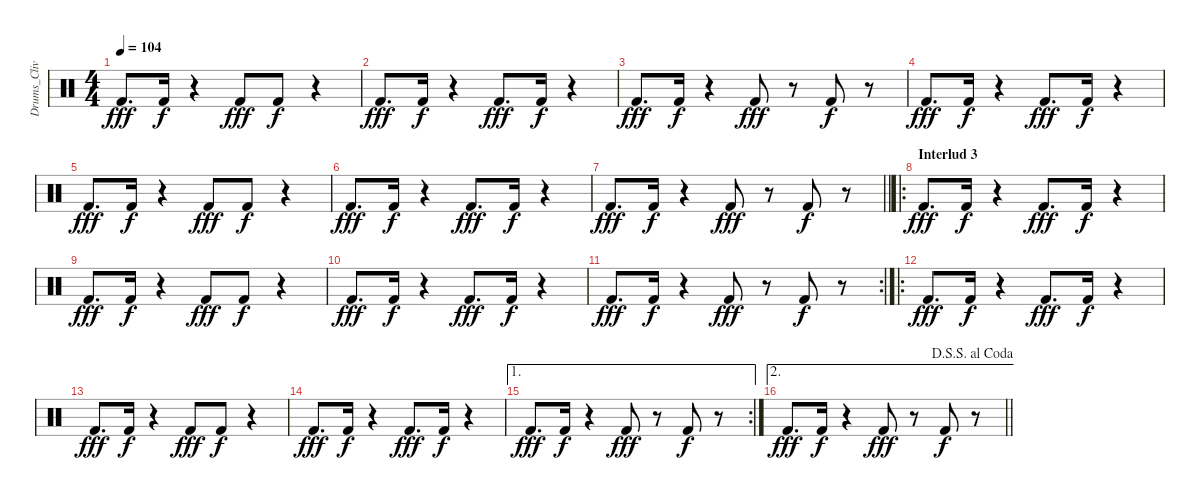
\track ("Drums_CliveBurr" "Drums_Cliv") {instrument percussion}
\staff {score}
\articulation defaults
\ts (4 4)
\tempo 104
\clef neutral
\ks c "Kick (hit) 2".8{d dy fff} "Kick (hit) 2".16{dy f}
r.4 "Kick (hit) 2".8{dy fff} "Kick (hit) 2".8{dy f} r.4 |
"Kick (hit) 2".8{d dy fff} "Kick (hit) 2".16{dy f} r.4 "Kick (hit) 2".8{d dy fff} "Kick (hit) 2".16{dy f} r.4 |
"Kick (hit) 2".8{d dy fff} "Kick (hit) 2".16{dy f} r.4 "Kick (hit) 2".8{dy fff} r.8 "Kick (hit) 2".8{dy f} r.8 |
"Kick (hit) 2".8{d dy fff} "Kick (hit) 2".16{dy f} r.4 "Kick (hit) 2".8{d dy fff} "Kick (hit) 2".16{dy f} r.4 |
"Kick (hit) 2".8{d dy fff} "Kick (hit) 2".16{dy f} r.4 "Kick (hit) 2".8{dy fff} "Kick (hit) 2".8{dy f} r.4 |
"Kick (hit) 2".8{d dy fff} "Kick (hit) 2".16{dy f} r.4 "Kick (hit) 2".8{d dy fff} "Kick (hit) 2".16{dy f} r.4 |
\barLineRight lightlight "Kick (hit) 2".8{d dy fff} "Kick (hit) 2".16{dy f}
r.4 "Kick (hit) 2".8{dy fff} r.8 "Kick (hit) 2".8{dy f} r.8 |
\ro
\section ("" "Interlud 3")
"Kick (hit) 2".8{d dy fff} "Kick (hit) 2".16{dy f} r.4 "Kick (hit) 2".8{d dy fff} "Kick (hit) 2".16{dy f} r.4 |
"Kick (hit) 2".8{d dy fff} "Kick (hit) 2".16{dy f} r.4 "Kick (hit) 2".8{dy fff} "Kick (hit) 2".8{dy f} r.4 |
"Kick (hit) 2".8{d dy fff} "Kick (hit) 2".16{dy f} r.4 "Kick (hit) 2".8{d dy fff} "Kick (hit) 2".16{dy f} r.4 |
\rc 2 "Kick (hit) 2".8{d dy fff} "Kick (hit) 2".16{dy f}
r.4 "Kick (hit) 2".8{dy fff} r.8 "Kick (hit) 2".8{dy f} r.8 |
\ro "Kick (hit) 2".8{d dy fff} "Kick (hit) 2".16{dy f}
r.4 "Kick (hit) 2".8{d dy fff} "Kick (hit) 2".16{dy f} r.4 |
"Kick (hit) 2".8{d dy fff} "Kick (hit) 2".16{dy f} r.4 "Kick (hit) 2".8{dy fff} "Kick (hit) 2".8{dy f} r.4 |
"Kick (hit) 2".8{d dy fff} "Kick (hit) 2".16{dy f} r.4 "Kick (hit) 2".8{d dy fff} "Kick (hit) 2".16{dy f} r.4 |
\ae 1
\rc 2 "Kick (hit) 2".8{d dy fff} "Kick (hit) 2".16{dy f}
r.4 "Kick (hit) 2".8{dy fff} r.8 "Kick (hit) 2".8{dy f} r.8 |
\ae 2
\jump dalsegnosegnoalcoda
\barLineRight lightlight "Kick (hit) 2".8{d dy fff} "Kick (hit) 2".16{dy f}
r.4 "Kick (hit) 2".8{dy fff} r.8 "Kick (hit) 2".8{dy f} r.8
